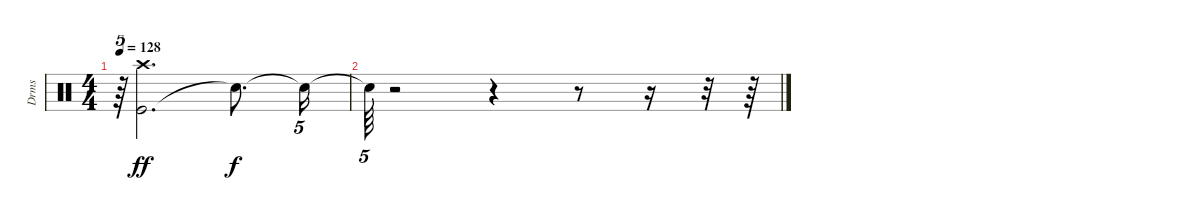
\track ("Drms" "Drms") {instrument percussion}
\staff {score}
\articulation defaults
\ts (4 4)
\tempo 128
\clef neutral
\ks c
r.64{tu (5 4) dy ff} ("Kick (hit)" "Crash high (hit)").2{d} "Snare (hit)"{t}.8{d dy f} "Snare (hit)"{t}.16{tu (5 4)} |
"Snare (hit)"{t}.64{tu (5 4)} r.2 r.4 r.8 r.16 r.32 r.64
